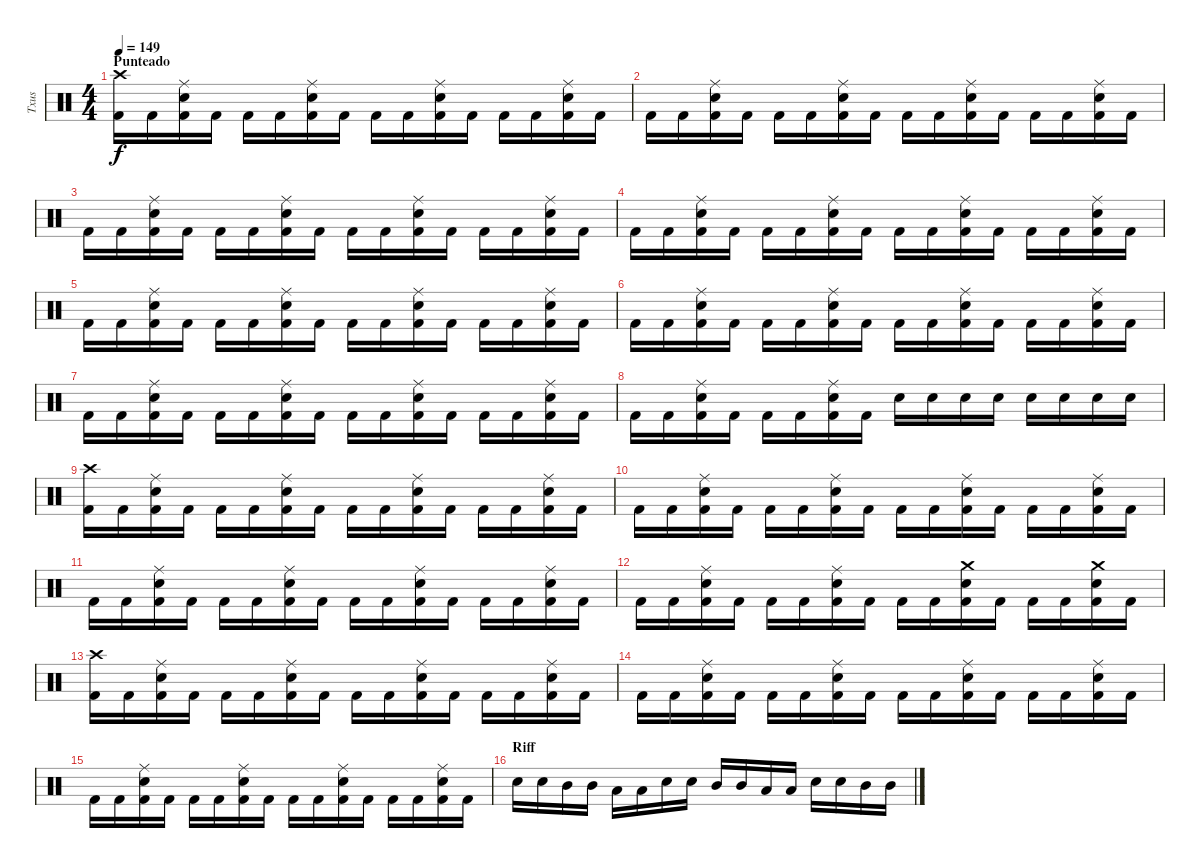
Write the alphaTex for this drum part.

\track ("Txus" "Txus") {instrument percussion}
\staff {score}
\articulation defaults
\ts (4 4)
\section ("" "Punteado")
\tempo 149
\clef neutral
\ks c
("Kick (hit) 2" "Crash high (hit)").16{dy f} "Kick (hit) 2".16 ("Kick (hit) 2" "Electric Snare (hit)" "Ride (middle)").16 "Kick (hit) 2".16 "Kick (hit) 2".16 "Kick (hit) 2".16 ("Kick (hit) 2" "Electric Snare (hit)" "Ride (middle)").16 "Kick (hit) 2".16 "Kick (hit) 2".16 "Kick (hit) 2".16 ("Kick (hit) 2" "Electric Snare (hit)" "Ride (middle)").16 "Kick (hit) 2".16 "Kick (hit) 2".16 "Kick (hit) 2".16 ("Kick (hit) 2" "Electric Snare (hit)" "Ride (middle)").16 "Kick (hit) 2".16 |
"Kick (hit) 2".16 "Kick (hit) 2".16 ("Kick (hit) 2" "Electric Snare (hit)" "Ride (middle)").16 "Kick (hit) 2".16 "Kick (hit) 2".16 "Kick (hit) 2".16 ("Kick (hit) 2" "Electric Snare (hit)" "Ride (middle)").16 "Kick (hit) 2".16 "Kick (hit) 2".16 "Kick (hit) 2".16 ("Kick (hit) 2" "Electric Snare (hit)" "Ride (middle)").16 "Kick (hit) 2".16 "Kick (hit) 2".16 "Kick (hit) 2".16 ("Kick (hit) 2" "Electric Snare (hit)" "Ride (middle)").16 "Kick (hit) 2".16 |
"Kick (hit) 2".16 "Kick (hit) 2".16 ("Kick (hit) 2" "Electric Snare (hit)" "Ride (middle)").16 "Kick (hit) 2".16 "Kick (hit) 2".16 "Kick (hit) 2".16 ("Kick (hit) 2" "Electric Snare (hit)" "Ride (middle)").16 "Kick (hit) 2".16 "Kick (hit) 2".16 "Kick (hit) 2".16 ("Kick (hit) 2" "Electric Snare (hit)" "Ride (middle)").16 "Kick (hit) 2".16 "Kick (hit) 2".16 "Kick (hit) 2".16 ("Kick (hit) 2" "Electric Snare (hit)" "Ride (middle)").16 "Kick (hit) 2".16 |
"Kick (hit) 2".16 "Kick (hit) 2".16 ("Kick (hit) 2" "Electric Snare (hit)" "Ride (middle)").16 "Kick (hit) 2".16 "Kick (hit) 2".16 "Kick (hit) 2".16 ("Kick (hit) 2" "Electric Snare (hit)" "Ride (middle)").16 "Kick (hit) 2".16 "Kick (hit) 2".16 "Kick (hit) 2".16 ("Kick (hit) 2" "Electric Snare (hit)" "Ride (middle)").16 "Kick (hit) 2".16 "Kick (hit) 2".16 "Kick (hit) 2".16 ("Kick (hit) 2" "Electric Snare (hit)" "Ride (middle)").16 "Kick (hit) 2".16 |
"Kick (hit) 2".16 "Kick (hit) 2".16 ("Kick (hit) 2" "Electric Snare (hit)" "Ride (middle)").16 "Kick (hit) 2".16 "Kick (hit) 2".16 "Kick (hit) 2".16 ("Kick (hit) 2" "Electric Snare (hit)" "Ride (middle)").16 "Kick (hit) 2".16 "Kick (hit) 2".16 "Kick (hit) 2".16 ("Kick (hit) 2" "Electric Snare (hit)" "Ride (middle)").16 "Kick (hit) 2".16 "Kick (hit) 2".16 "Kick (hit) 2".16 ("Kick (hit) 2" "Electric Snare (hit)" "Ride (middle)").16 "Kick (hit) 2".16 |
"Kick (hit) 2".16 "Kick (hit) 2".16 ("Kick (hit) 2" "Electric Snare (hit)" "Ride (middle)").16 "Kick (hit) 2".16 "Kick (hit) 2".16 "Kick (hit) 2".16 ("Kick (hit) 2" "Electric Snare (hit)" "Ride (middle)").16 "Kick (hit) 2".16 "Kick (hit) 2".16 "Kick (hit) 2".16 ("Kick (hit) 2" "Electric Snare (hit)" "Ride (middle)").16 "Kick (hit) 2".16 "Kick (hit) 2".16 "Kick (hit) 2".16 ("Kick (hit) 2" "Electric Snare (hit)" "Ride (middle)").16 "Kick (hit) 2".16 |
"Kick (hit) 2".16 "Kick (hit) 2".16 ("Kick (hit) 2" "Electric Snare (hit)" "Ride (middle)").16 "Kick (hit) 2".16 "Kick (hit) 2".16 "Kick (hit) 2".16 ("Kick (hit) 2" "Electric Snare (hit)" "Ride (middle)").16 "Kick (hit) 2".16 "Kick (hit) 2".16 "Kick (hit) 2".16 ("Kick (hit) 2" "Electric Snare (hit)" "Ride (middle)").16 "Kick (hit) 2".16 "Kick (hit) 2".16 "Kick (hit) 2".16 ("Kick (hit) 2" "Electric Snare (hit)" "Ride (middle)").16 "Kick (hit) 2".16 |
"Kick (hit) 2".16 "Kick (hit) 2".16 ("Kick (hit) 2" "Electric Snare (hit)" "Ride (middle)").16 "Kick (hit) 2".16 "Kick (hit) 2".16 "Kick (hit) 2".16 ("Kick (hit) 2" "Electric Snare (hit)" "Ride (middle)").16 "Kick (hit) 2".16 "Electric Snare (hit)".16 "Electric Snare (hit)".16 "Electric Snare (hit)".16 "Electric Snare (hit)".16 "Electric Snare (hit)".16 "Electric Snare (hit)".16 "Electric Snare (hit)".16 "Electric Snare (hit)".16 |
("Kick (hit) 2" "Crash high (hit)").16 "Kick (hit) 2".16 ("Kick (hit) 2" "Electric Snare (hit)" "Ride (middle)").16 "Kick (hit) 2".16 "Kick (hit) 2".16 "Kick (hit) 2".16 ("Kick (hit) 2" "Electric Snare (hit)" "Ride (middle)").16 "Kick (hit) 2".16 "Kick (hit) 2".16 "Kick (hit) 2".16 ("Kick (hit) 2" "Electric Snare (hit)" "Ride (middle)").16 "Kick (hit) 2".16 "Kick (hit) 2".16 "Kick (hit) 2".16 ("Kick (hit) 2" "Electric Snare (hit)" "Ride (middle)").16 "Kick (hit) 2".16 |
"Kick (hit) 2".16 "Kick (hit) 2".16 ("Kick (hit) 2" "Electric Snare (hit)" "Ride (middle)").16 "Kick (hit) 2".16 "Kick (hit) 2".16 "Kick (hit) 2".16 ("Kick (hit) 2" "Electric Snare (hit)" "Ride (middle)").16 "Kick (hit) 2".16 "Kick (hit) 2".16 "Kick (hit) 2".16 ("Kick (hit) 2" "Electric Snare (hit)" "Ride (middle)").16 "Kick (hit) 2".16 "Kick (hit) 2".16 "Kick (hit) 2".16 ("Kick (hit) 2" "Electric Snare (hit)" "Ride (middle)").16 "Kick (hit) 2".16 |
"Kick (hit) 2".16 "Kick (hit) 2".16 ("Kick (hit) 2" "Electric Snare (hit)" "Ride (middle)").16 "Kick (hit) 2".16 "Kick (hit) 2".16 "Kick (hit) 2".16 ("Kick (hit) 2" "Electric Snare (hit)" "Ride (middle)").16 "Kick (hit) 2".16 "Kick (hit) 2".16 "Kick (hit) 2".16 ("Kick (hit) 2" "Electric Snare (hit)" "Ride (middle)").16 "Kick (hit) 2".16 "Kick (hit) 2".16 "Kick (hit) 2".16 ("Kick (hit) 2" "Electric Snare (hit)" "Ride (middle)").16 "Kick (hit) 2".16 |
"Kick (hit) 2".16 "Kick (hit) 2".16 ("Kick (hit) 2" "Electric Snare (hit)" "Ride (middle)").16 "Kick (hit) 2".16 "Kick (hit) 2".16 "Kick (hit) 2".16 ("Kick (hit) 2" "Electric Snare (hit)" "Ride (middle)").16 "Kick (hit) 2".16 "Kick (hit) 2".16 "Kick (hit) 2".16 ("Kick (hit) 2" "Electric Snare (hit)" "Crash medium (hit)").16 "Kick (hit) 2".16 "Kick (hit) 2".16 "Kick (hit) 2".16 ("Kick (hit) 2" "Electric Snare (hit)" "Crash medium (hit)").16 "Kick (hit) 2".16 |
("Kick (hit) 2" "Crash high (hit)").16 "Kick (hit) 2".16 ("Kick (hit) 2" "Electric Snare (hit)" "Ride (middle)").16 "Kick (hit) 2".16 "Kick (hit) 2".16 "Kick (hit) 2".16 ("Kick (hit) 2" "Electric Snare (hit)" "Ride (middle)").16 "Kick (hit) 2".16 "Kick (hit) 2".16 "Kick (hit) 2".16 ("Kick (hit) 2" "Electric Snare (hit)" "Ride (middle)").16 "Kick (hit) 2".16 "Kick (hit) 2".16 "Kick (hit) 2".16 ("Kick (hit) 2" "Electric Snare (hit)" "Ride (middle)").16 "Kick (hit) 2".16 |
"Kick (hit) 2".16 "Kick (hit) 2".16 ("Kick (hit) 2" "Electric Snare (hit)" "Ride (middle)").16 "Kick (hit) 2".16 "Kick (hit) 2".16 "Kick (hit) 2".16 ("Kick (hit) 2" "Electric Snare (hit)" "Ride (middle)").16 "Kick (hit) 2".16 "Kick (hit) 2".16 "Kick (hit) 2".16 ("Kick (hit) 2" "Electric Snare (hit)" "Ride (middle)").16 "Kick (hit) 2".16 "Kick (hit) 2".16 "Kick (hit) 2".16 ("Kick (hit) 2" "Electric Snare (hit)" "Ride (middle)").16 "Kick (hit) 2".16 |
"Kick (hit) 2".16 "Kick (hit) 2".16 ("Kick (hit) 2" "Electric Snare (hit)" "Ride (middle)").16 "Kick (hit) 2".16 "Kick (hit) 2".16 "Kick (hit) 2".16 ("Kick (hit) 2" "Electric Snare (hit)" "Ride (middle)").16 "Kick (hit) 2".16 "Kick (hit) 2".16 "Kick (hit) 2".16 ("Kick (hit) 2" "Electric Snare (hit)" "Ride (middle)").16 "Kick (hit) 2".16 "Kick (hit) 2".16 "Kick (hit) 2".16 ("Kick (hit) 2" "Electric Snare (hit)" "Ride (middle)").16 "Kick (hit) 2".16 |
\section ("" "Riff")
"Electric Snare (hit)".16 "Electric Snare (hit)".16 "Mid Tom (hit)".16 "Mid Tom (hit)".16 "Low Tom (hit)".16 "Low Tom (hit)".16 "Electric Snare (hit)".16 "Electric Snare (hit)".16 "Mid Tom (hit)".16 "Mid Tom (hit)".16 "Low Tom (hit)".16 "Low Tom (hit)".16 "Electric Snare (hit)".16 "Electric Snare (hit)".16 "Mid Tom (hit)".16 "Mid Tom (hit)".16
